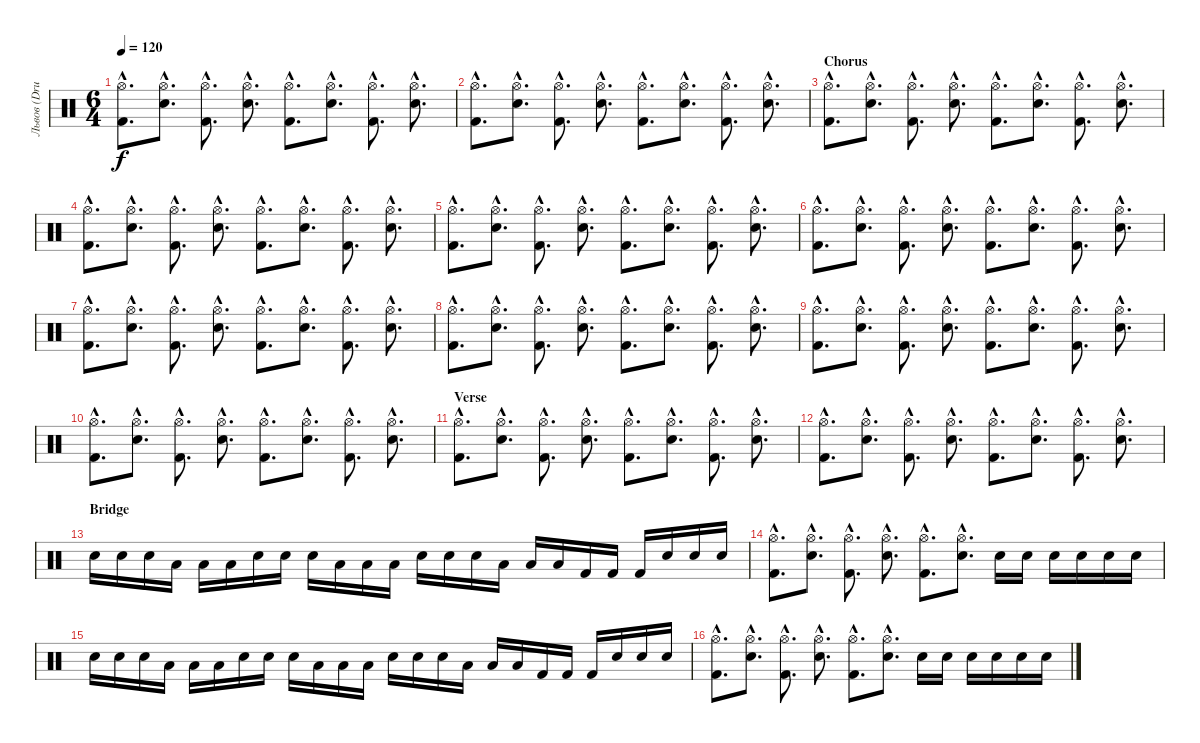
\track ("Львов (Drums)" "Львов (Dru") {instrument percussion}
\staff {score}
\articulation defaults
\ts (6 4)
\tempo 120
\clef neutral
\ks c
("Kick (hit) 2"{hac} "Hi-Hat (open)"{hac}).8{d dy f} ("Electric Snare (hit)"{hac} "Hi-Hat (open)"{hac}).8{d} ("Kick (hit) 2"{hac} "Hi-Hat (open)"{hac}).8{d} ("Electric Snare (hit)"{hac} "Hi-Hat (open)"{hac}).8{d} ("Kick (hit) 2"{hac} "Hi-Hat (open)"{hac}).8{d} ("Electric Snare (hit)"{hac} "Hi-Hat (open)"{hac}).8{d} ("Kick (hit) 2"{hac} "Hi-Hat (open)"{hac}).8{d} ("Electric Snare (hit)"{hac} "Hi-Hat (open)"{hac}).8{d} |
("Kick (hit) 2"{hac} "Hi-Hat (open)"{hac}).8{d} ("Electric Snare (hit)"{hac} "Hi-Hat (open)"{hac}).8{d} ("Kick (hit) 2"{hac} "Hi-Hat (open)"{hac}).8{d} ("Electric Snare (hit)"{hac} "Hi-Hat (open)"{hac}).8{d} ("Kick (hit) 2"{hac} "Hi-Hat (open)"{hac}).8{d} ("Electric Snare (hit)"{hac} "Hi-Hat (open)"{hac}).8{d} ("Kick (hit) 2"{hac} "Hi-Hat (open)"{hac}).8{d} ("Electric Snare (hit)"{hac} "Hi-Hat (open)"{hac}).8{d} |
\section ("" "Chorus")
("Kick (hit) 2"{hac} "Hi-Hat (open)"{hac}).8{d} ("Electric Snare (hit)"{hac} "Hi-Hat (open)"{hac}).8{d} ("Kick (hit) 2"{hac} "Hi-Hat (open)"{hac}).8{d} ("Electric Snare (hit)"{hac} "Hi-Hat (open)"{hac}).8{d} ("Kick (hit) 2"{hac} "Hi-Hat (open)"{hac}).8{d} ("Electric Snare (hit)"{hac} "Hi-Hat (open)"{hac}).8{d} ("Kick (hit) 2"{hac} "Hi-Hat (open)"{hac}).8{d} ("Electric Snare (hit)"{hac} "Hi-Hat (open)"{hac}).8{d} |
("Kick (hit) 2"{hac} "Hi-Hat (open)"{hac}).8{d} ("Electric Snare (hit)"{hac} "Hi-Hat (open)"{hac}).8{d} ("Kick (hit) 2"{hac} "Hi-Hat (open)"{hac}).8{d} ("Electric Snare (hit)"{hac} "Hi-Hat (open)"{hac}).8{d} ("Kick (hit) 2"{hac} "Hi-Hat (open)"{hac}).8{d} ("Electric Snare (hit)"{hac} "Hi-Hat (open)"{hac}).8{d} ("Kick (hit) 2"{hac} "Hi-Hat (open)"{hac}).8{d} ("Electric Snare (hit)"{hac} "Hi-Hat (open)"{hac}).8{d} |
("Kick (hit) 2"{hac} "Hi-Hat (open)"{hac}).8{d} ("Electric Snare (hit)"{hac} "Hi-Hat (open)"{hac}).8{d} ("Kick (hit) 2"{hac} "Hi-Hat (open)"{hac}).8{d} ("Electric Snare (hit)"{hac} "Hi-Hat (open)"{hac}).8{d} ("Kick (hit) 2"{hac} "Hi-Hat (open)"{hac}).8{d} ("Electric Snare (hit)"{hac} "Hi-Hat (open)"{hac}).8{d} ("Kick (hit) 2"{hac} "Hi-Hat (open)"{hac}).8{d} ("Electric Snare (hit)"{hac} "Hi-Hat (open)"{hac}).8{d} |
("Kick (hit) 2"{hac} "Hi-Hat (open)"{hac}).8{d} ("Electric Snare (hit)"{hac} "Hi-Hat (open)"{hac}).8{d} ("Kick (hit) 2"{hac} "Hi-Hat (open)"{hac}).8{d} ("Electric Snare (hit)"{hac} "Hi-Hat (open)"{hac}).8{d} ("Kick (hit) 2"{hac} "Hi-Hat (open)"{hac}).8{d} ("Electric Snare (hit)"{hac} "Hi-Hat (open)"{hac}).8{d} ("Kick (hit) 2"{hac} "Hi-Hat (open)"{hac}).8{d} ("Electric Snare (hit)"{hac} "Hi-Hat (open)"{hac}).8{d} |
("Kick (hit) 2"{hac} "Hi-Hat (open)"{hac}).8{d} ("Electric Snare (hit)"{hac} "Hi-Hat (open)"{hac}).8{d} ("Kick (hit) 2"{hac} "Hi-Hat (open)"{hac}).8{d} ("Electric Snare (hit)"{hac} "Hi-Hat (open)"{hac}).8{d} ("Kick (hit) 2"{hac} "Hi-Hat (open)"{hac}).8{d} ("Electric Snare (hit)"{hac} "Hi-Hat (open)"{hac}).8{d} ("Kick (hit) 2"{hac} "Hi-Hat (open)"{hac}).8{d} ("Electric Snare (hit)"{hac} "Hi-Hat (open)"{hac}).8{d} |
("Kick (hit) 2"{hac} "Hi-Hat (open)"{hac}).8{d} ("Electric Snare (hit)"{hac} "Hi-Hat (open)"{hac}).8{d} ("Kick (hit) 2"{hac} "Hi-Hat (open)"{hac}).8{d} ("Electric Snare (hit)"{hac} "Hi-Hat (open)"{hac}).8{d} ("Kick (hit) 2"{hac} "Hi-Hat (open)"{hac}).8{d} ("Electric Snare (hit)"{hac} "Hi-Hat (open)"{hac}).8{d} ("Kick (hit) 2"{hac} "Hi-Hat (open)"{hac}).8{d} ("Electric Snare (hit)"{hac} "Hi-Hat (open)"{hac}).8{d} |
("Kick (hit) 2"{hac} "Hi-Hat (open)"{hac}).8{d} ("Electric Snare (hit)"{hac} "Hi-Hat (open)"{hac}).8{d} ("Kick (hit) 2"{hac} "Hi-Hat (open)"{hac}).8{d} ("Electric Snare (hit)"{hac} "Hi-Hat (open)"{hac}).8{d} ("Kick (hit) 2"{hac} "Hi-Hat (open)"{hac}).8{d} ("Electric Snare (hit)"{hac} "Hi-Hat (open)"{hac}).8{d} ("Kick (hit) 2"{hac} "Hi-Hat (open)"{hac}).8{d} ("Electric Snare (hit)"{hac} "Hi-Hat (open)"{hac}).8{d} |
("Kick (hit) 2"{hac} "Hi-Hat (open)"{hac}).8{d} ("Electric Snare (hit)"{hac} "Hi-Hat (open)"{hac}).8{d} ("Kick (hit) 2"{hac} "Hi-Hat (open)"{hac}).8{d} ("Electric Snare (hit)"{hac} "Hi-Hat (open)"{hac}).8{d} ("Kick (hit) 2"{hac} "Hi-Hat (open)"{hac}).8{d} ("Electric Snare (hit)"{hac} "Hi-Hat (open)"{hac}).8{d} ("Kick (hit) 2"{hac} "Hi-Hat (open)"{hac}).8{d} ("Electric Snare (hit)"{hac} "Hi-Hat (open)"{hac}).8{d} |
\section ("" "Verse")
("Kick (hit) 2"{hac} "Hi-Hat (open)"{hac}).8{d} ("Electric Snare (hit)"{hac} "Hi-Hat (open)"{hac}).8{d} ("Kick (hit) 2"{hac} "Hi-Hat (open)"{hac}).8{d} ("Electric Snare (hit)"{hac} "Hi-Hat (open)"{hac}).8{d} ("Kick (hit) 2"{hac} "Hi-Hat (open)"{hac}).8{d} ("Electric Snare (hit)"{hac} "Hi-Hat (open)"{hac}).8{d} ("Kick (hit) 2"{hac} "Hi-Hat (open)"{hac}).8{d} ("Electric Snare (hit)"{hac} "Hi-Hat (open)"{hac}).8{d} |
("Kick (hit) 2"{hac} "Hi-Hat (open)"{hac}).8{d} ("Electric Snare (hit)"{hac} "Hi-Hat (open)"{hac}).8{d} ("Kick (hit) 2"{hac} "Hi-Hat (open)"{hac}).8{d} ("Electric Snare (hit)"{hac} "Hi-Hat (open)"{hac}).8{d} ("Kick (hit) 2"{hac} "Hi-Hat (open)"{hac}).8{d} ("Electric Snare (hit)"{hac} "Hi-Hat (open)"{hac}).8{d} ("Kick (hit) 2"{hac} "Hi-Hat (open)"{hac}).8{d} ("Electric Snare (hit)"{hac} "Hi-Hat (open)"{hac}).8{d} |
\section ("" "Bridge")
"Electric Snare (hit)".16 "Electric Snare (hit)".16 "Electric Snare (hit)".16 "Low Tom (hit)".16 "Low Tom (hit)".16 "Low Tom (hit)".16 "Electric Snare (hit)".16 "Electric Snare (hit)".16 "Electric Snare (hit)".16 "Low Tom (hit)".16 "Low Tom (hit)".16 "Low Tom (hit)".16 "Electric Snare (hit)".16 "Electric Snare (hit)".16 "Electric Snare (hit)".16 "Low Tom (hit)".16 "Low Tom (hit)".16 "Low Tom (hit)".16 "Kick (hit) 2".16 "Kick (hit) 2".16 "Kick (hit) 2".16 "Electric Snare (hit)".16 "Electric Snare (hit)".16 "Electric Snare (hit)".16 |
("Kick (hit) 2"{hac} "Hi-Hat (open)"{hac}).8{d} ("Electric Snare (hit)"{hac} "Hi-Hat (open)"{hac}).8{d} ("Kick (hit) 2"{hac} "Hi-Hat (open)"{hac}).8{d} ("Electric Snare (hit)"{hac} "Hi-Hat (open)"{hac}).8{d} ("Kick (hit) 2"{hac} "Hi-Hat (open)"{hac}).8{d} ("Electric Snare (hit)"{hac} "Hi-Hat (open)"{hac}).8{d} "Electric Snare (hit)".16 "Electric Snare (hit)".16 "Electric Snare (hit)".16 "Electric Snare (hit)".16 "Electric Snare (hit)".16 "Electric Snare (hit)".16 |
"Electric Snare (hit)".16 "Electric Snare (hit)".16 "Electric Snare (hit)".16 "Low Tom (hit)".16 "Low Tom (hit)".16 "Low Tom (hit)".16 "Electric Snare (hit)".16 "Electric Snare (hit)".16 "Electric Snare (hit)".16 "Low Tom (hit)".16 "Low Tom (hit)".16 "Low Tom (hit)".16 "Electric Snare (hit)".16 "Electric Snare (hit)".16 "Electric Snare (hit)".16 "Low Tom (hit)".16 "Low Tom (hit)".16 "Low Tom (hit)".16 "Kick (hit) 2".16 "Kick (hit) 2".16 "Kick (hit) 2".16 "Electric Snare (hit)".16 "Electric Snare (hit)".16 "Electric Snare (hit)".16 |
("Kick (hit) 2"{hac} "Hi-Hat (open)"{hac}).8{d} ("Electric Snare (hit)"{hac} "Hi-Hat (open)"{hac}).8{d} ("Kick (hit) 2"{hac} "Hi-Hat (open)"{hac}).8{d} ("Electric Snare (hit)"{hac} "Hi-Hat (open)"{hac}).8{d} ("Kick (hit) 2"{hac} "Hi-Hat (open)"{hac}).8{d} ("Electric Snare (hit)"{hac} "Hi-Hat (open)"{hac}).8{d} "Electric Snare (hit)".16 "Electric Snare (hit)".16 "Electric Snare (hit)".16 "Electric Snare (hit)".16 "Electric Snare (hit)".16 "Electric Snare (hit)".16
